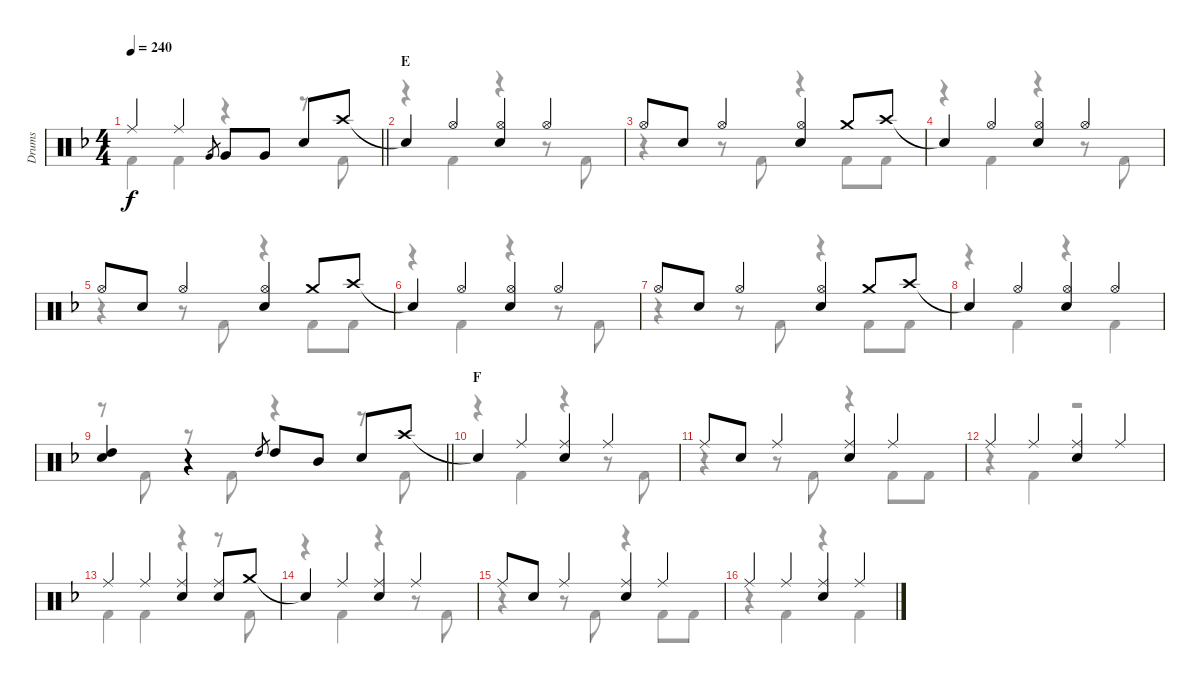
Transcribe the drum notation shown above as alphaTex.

\track ("Drums" "Drums") {instrument percussion}
\staff {score}
\articulation defaults
\voice
\ts (4 4)
\tempo 240
\clef neutral
\barLineRight lightlight
\ks f "Ride (middle)".4{dy f} "Ride (middle)".4 "Very Low Tom (hit)".8{gr} "Very Low Tom (hit)".8 "Very Low Tom (hit)".8 "Snare (hit) 2".8 "Crash high (hit)".8
|
\section ("" "E")
"Snare (hit)"{t}.4 "Hi-Hat (open)".4 ("Hi-Hat (open)" "Snare (hit) 2").4 "Hi-Hat (open)".4 |
"Hi-Hat (open)".8 "Snare (hit) 2".8 "Hi-Hat (open)".4 ("Hi-Hat (open)" "Snare (hit) 2").4 "Crash medium (hit)".8 "Crash high (hit)".8 |
"Snare (hit)"{t}.4 "Hi-Hat (open)".4 ("Hi-Hat (open)" "Snare (hit) 2").4 "Hi-Hat (open)".4 |
"Hi-Hat (open)".8 "Snare (hit) 2".8 "Hi-Hat (open)".4 ("Hi-Hat (open)" "Snare (hit) 2").4 "Crash medium (hit)".8 "Crash high (hit)".8 |
"Snare (hit)"{t}.4 "Hi-Hat (open)".4 ("Hi-Hat (open)" "Snare (hit) 2").4 "Hi-Hat (open)".4 |
"Hi-Hat (open)".8 "Snare (hit) 2".8 "Hi-Hat (open)".4 ("Hi-Hat (open)" "Snare (hit) 2").4 "Crash medium (hit)".8 "Crash high (hit)".8 |
"Snare (hit)"{t}.4 "Hi-Hat (open)".4 ("Hi-Hat (open)" "Snare (hit) 2").4 "Hi-Hat (open)".4 |
\barLineRight lightlight
("High Tom (hit)" "Snare (hit) 2").4 r.4 "High Tom (hit)".8{gr} "High Tom (hit)".8 "Mid Tom (hit)".8 "Snare (hit) 2".8 "Crash high (hit)".8 |
\section ("" "F")
"Snare (hit)"{t}.4 "Ride (middle)".4 ("Ride (middle)" "Snare (hit) 2").4 "Ride (middle)".4 |
"Ride (middle)".8 "Snare (hit) 2".8 "Ride (middle)".4 ("Ride (middle)" "Snare (hit) 2").4 "Ride (middle)".4 |
"Ride (middle)".4 "Ride (middle)".4 ("Ride (middle)" "Snare (hit) 2").4 "Ride (middle)".4 |
"Ride (middle)".4 "Ride (middle)".4 ("Ride (middle)" "Snare (hit) 2").4 ("Ride (middle)" "Snare (hit) 2").8 "Crash medium (hit)".8 |
"Snare (hit)"{t}.4 "Ride (middle)".4 ("Ride (middle)" "Snare (hit) 2").4 "Ride (middle)".4 |
"Ride (middle)".8 "Snare (hit) 2".8 "Ride (middle)".4 ("Ride (middle)" "Snare (hit) 2").4 "Ride (middle)".4 |
"Ride (middle)".4 "Ride (middle)".4 ("Ride (middle)" "Snare (hit) 2").4 "Ride (middle)".4
\voice
\clef neutral
\ottava regular
\simile none
\barLineRight lightlight
\ks f "Kick (hit) 2".4{dy f} "Kick (hit) 2".4
r.4 r.8 "Kick (hit) 2".8 |
r.4 "Kick (hit) 2".4 r.4 r.8 "Kick (hit) 2".8 |
r.4 r.8 "Kick (hit) 2".8 r.4 "Kick (hit) 2".8 "Kick (hit) 2".8 |
r.4 "Kick (hit) 2".4 r.4 r.8 "Kick (hit) 2".8 |
r.4 r.8 "Kick (hit) 2".8 r.4 "Kick (hit) 2".8 "Kick (hit) 2".8 |
r.4 "Kick (hit) 2".4 r.4 r.8 "Kick (hit) 2".8 |
r.4 r.8 "Kick (hit) 2".8 r.4 "Kick (hit) 2".8 "Kick (hit) 2".8 |
r.4 "Kick (hit) 2".4 r.4 "Kick (hit) 2".4 |
\barLineRight lightlight
r.8 "Kick (hit) 2".8 r.8 "Kick (hit) 2".8 r.4 r.8 "Kick (hit) 2".8 |
r.4 "Kick (hit) 2".4 r.4 r.8 "Kick (hit) 2".8 |
r.4 r.8 "Kick (hit) 2".8 r.4 "Kick (hit) 2".8 "Kick (hit) 2".8 |
r.4 "Kick (hit) 2".4 r.2 |
"Kick (hit) 2".4 "Kick (hit) 2".4 r.4 r.8 "Kick (hit) 2".8 |
r.4 "Kick (hit) 2".4 r.4 r.8 "Kick (hit) 2".8 |
r.4 r.8 "Kick (hit) 2".8 r.4 "Kick (hit) 2".8 "Kick (hit) 2".8 |
r.4 "Kick (hit) 2".4 r.4 "Kick (hit) 2".4
